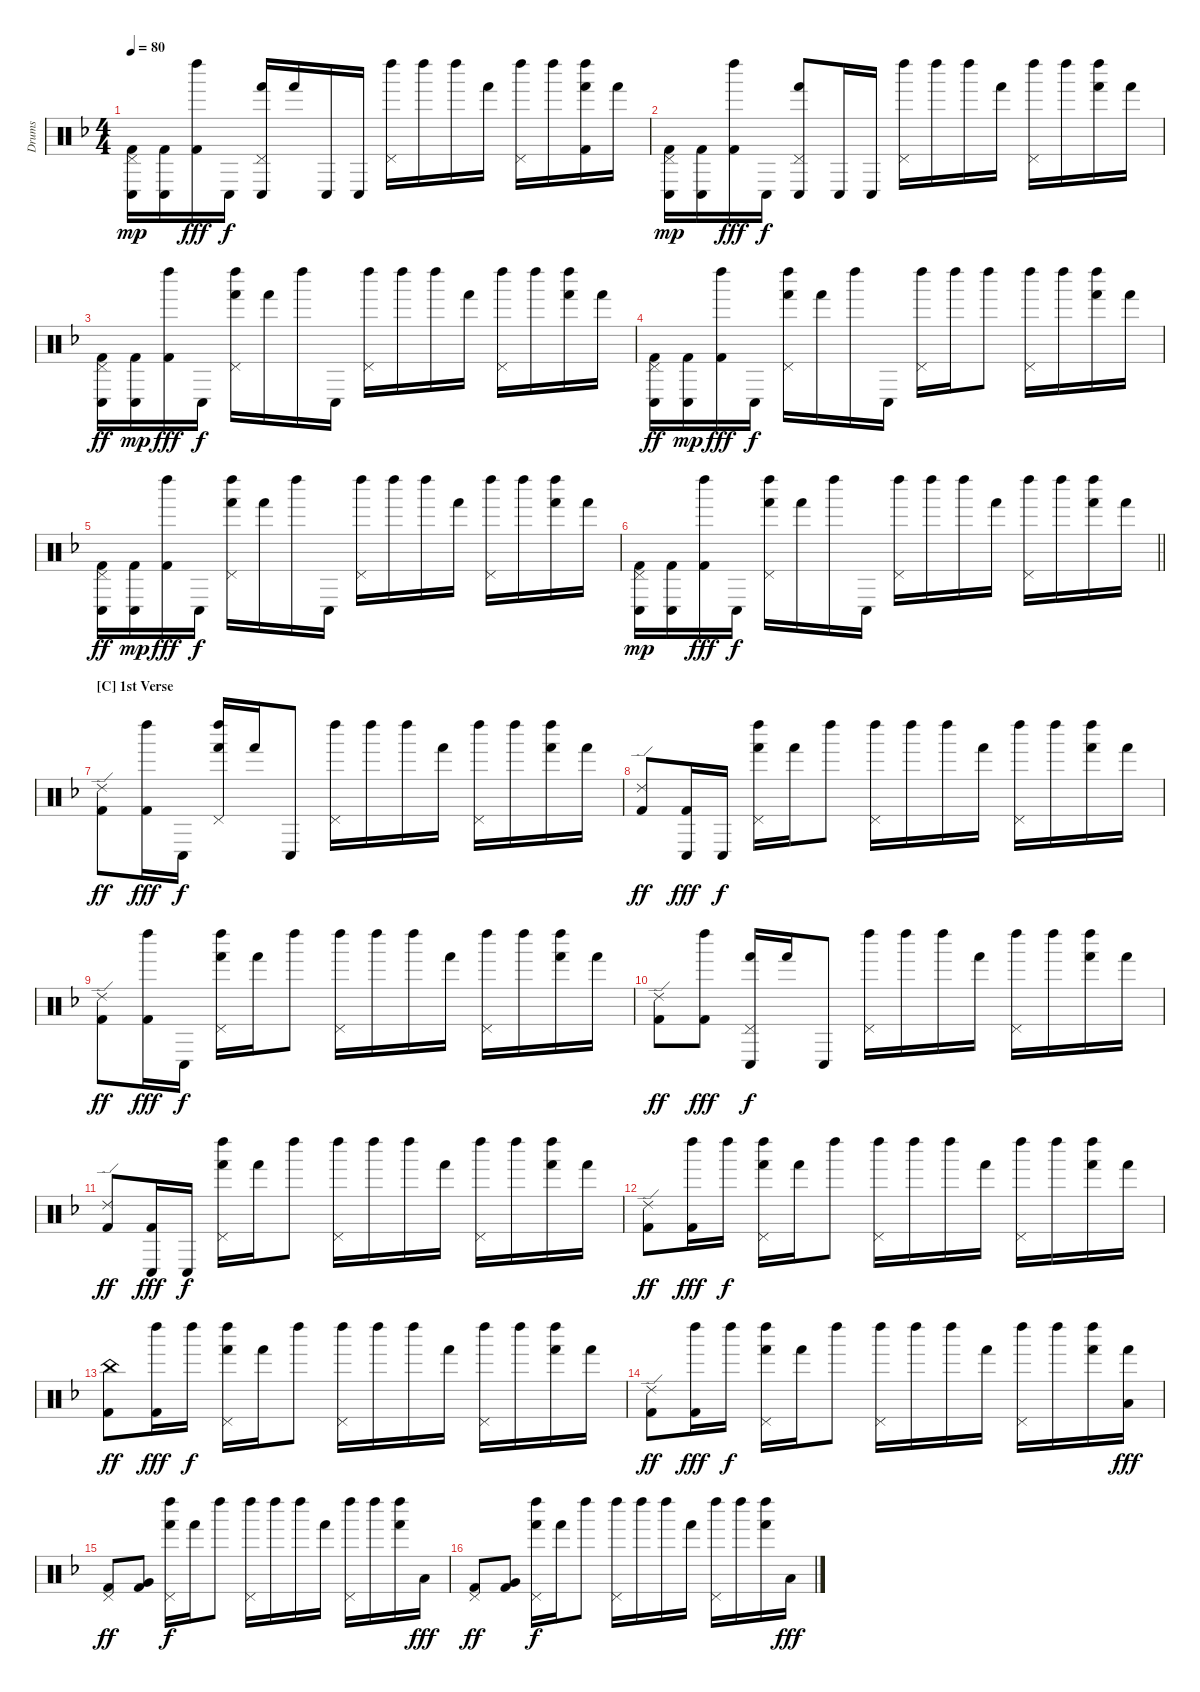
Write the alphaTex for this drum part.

\track ("Drums" "Drums") {instrument percussion}
\staff {score}
\articulation defaults
\ts (4 4)
\tempo 80
\clef neutral
\ks dminor
("Pedal Hi-Hat (hit)" "Conga low (hit)" "Kick (hit) 2").16{dy mp} ("Conga low (hit)" "Kick (hit) 2").16 ("Left Maraca (hit)" "Kick (hit) 2").16{dy fff} "Conga low (hit)".16{dy f} ("Pedal Hi-Hat (hit)" "Conga low (hit)" "Hand (hit)").16 "Hand (hit)".16 "Conga low (hit)".16 "Conga low (hit)".16 ("Pedal Hi-Hat (hit)" "Left Maraca (hit)").16 "Left Maraca (hit)".16 "Left Maraca (hit)".16 "Hand (hit)".16 ("Pedal Hi-Hat (hit)" "Left Maraca (hit)").16 "Left Maraca (hit)".16 ("Left Maraca (hit)" "Hand (hit)" "Kick (hit) 2").16 "Hand (hit)".16 |
("Pedal Hi-Hat (hit)" "Conga low (hit)" "Kick (hit) 2").16{dy mp} ("Conga low (hit)" "Kick (hit) 2").16 ("Left Maraca (hit)" "Kick (hit) 2").16{dy fff} "Conga low (hit)".16{dy f} ("Pedal Hi-Hat (hit)" "Conga low (hit)" "Hand (hit)").8 "Conga low (hit)".16 "Conga low (hit)".16 ("Pedal Hi-Hat (hit)" "Left Maraca (hit)").16 "Left Maraca (hit)".16 "Left Maraca (hit)".16 "Hand (hit)".16 ("Pedal Hi-Hat (hit)" "Left Maraca (hit)").16 "Left Maraca (hit)".16 ("Left Maraca (hit)" "Hand (hit)").16 "Hand (hit)".16 |
("Pedal Hi-Hat (hit)" "Conga low (hit)" "Kick (hit) 2").16{dy ff} ("Conga low (hit)" "Kick (hit) 2").16{dy mp} ("Left Maraca (hit)" "Kick (hit) 2").16{dy fff} "Conga low (hit)".16{dy f} ("Pedal Hi-Hat (hit)" "Left Maraca (hit)" "Hand (hit)").16 "Hand (hit)".16 "Left Maraca (hit)".16 "Conga low (hit)".16 ("Pedal Hi-Hat (hit)" "Left Maraca (hit)").16 "Left Maraca (hit)".16 "Left Maraca (hit)".16 "Hand (hit)".16 ("Pedal Hi-Hat (hit)" "Left Maraca (hit)").16 "Left Maraca (hit)".16 ("Left Maraca (hit)" "Hand (hit)").16 "Hand (hit)".16 |
("Pedal Hi-Hat (hit)" "Conga low (hit)" "Kick (hit) 2").16{dy ff} ("Conga low (hit)" "Kick (hit) 2").16{dy mp} ("Left Maraca (hit)" "Kick (hit) 2").16{dy fff} "Conga low (hit)".16{dy f} ("Pedal Hi-Hat (hit)" "Left Maraca (hit)" "Hand (hit)").16 "Hand (hit)".16 "Left Maraca (hit)".16 "Conga low (hit)".16 ("Pedal Hi-Hat (hit)" "Left Maraca (hit)").16 "Left Maraca (hit)".16 "Left Maraca (hit)".8 ("Pedal Hi-Hat (hit)" "Left Maraca (hit)").16 "Left Maraca (hit)".16 ("Left Maraca (hit)" "Hand (hit)").16 "Hand (hit)".16 |
("Pedal Hi-Hat (hit)" "Conga low (hit)" "Kick (hit) 2").16{dy ff} ("Conga low (hit)" "Kick (hit) 2").16{dy mp} ("Left Maraca (hit)" "Kick (hit) 2").16{dy fff} "Conga low (hit)".16{dy f} ("Pedal Hi-Hat (hit)" "Left Maraca (hit)" "Hand (hit)").16 "Hand (hit)".16 "Left Maraca (hit)".16 "Conga low (hit)".16 ("Pedal Hi-Hat (hit)" "Left Maraca (hit)").16 "Left Maraca (hit)".16 "Left Maraca (hit)".16 "Hand (hit)".16 ("Pedal Hi-Hat (hit)" "Left Maraca (hit)").16 "Left Maraca (hit)".16 ("Left Maraca (hit)" "Hand (hit)").16 "Hand (hit)".16 |
\barLineRight lightlight
("Pedal Hi-Hat (hit)" "Conga low (hit)" "Kick (hit) 2").16{dy mp} ("Conga low (hit)" "Kick (hit) 2").16 ("Left Maraca (hit)" "Kick (hit) 2").16{dy fff} "Conga low (hit)".16{dy f} ("Pedal Hi-Hat (hit)" "Left Maraca (hit)" "Hand (hit)").16 "Hand (hit)".16 "Left Maraca (hit)".16 "Conga low (hit)".16 ("Pedal Hi-Hat (hit)" "Left Maraca (hit)").16 "Left Maraca (hit)".16 "Left Maraca (hit)".16 "Hand (hit)".16 ("Pedal Hi-Hat (hit)" "Left Maraca (hit)").16 "Left Maraca (hit)".16 ("Left Maraca (hit)" "Hand (hit)").16 "Hand (hit)".16 |
\section ("" "[C] 1st Verse")
("Ride (edge) 2" "Kick (hit) 2").8{dy ff} ("Left Maraca (hit)" "Kick (hit) 2").16{dy fff} "Conga low (hit)".16{dy f} ("Pedal Hi-Hat (hit)" "Left Maraca (hit)" "Hand (hit)").16 "Hand (hit)".16 "Conga low (hit)".8 ("Pedal Hi-Hat (hit)" "Left Maraca (hit)").16 "Left Maraca (hit)".16 "Left Maraca (hit)".16 "Hand (hit)".16 ("Pedal Hi-Hat (hit)" "Left Maraca (hit)").16 "Left Maraca (hit)".16 ("Left Maraca (hit)" "Hand (hit)").16 "Hand (hit)".16 |
("Ride (edge) 2" "Kick (hit) 2").8{dy ff} ("Conga low (hit)" "Kick (hit) 2").16{dy fff} "Conga low (hit)".16{dy f} ("Pedal Hi-Hat (hit)" "Left Maraca (hit)" "Hand (hit)").16 "Hand (hit)".16 "Left Maraca (hit)".8 ("Pedal Hi-Hat (hit)" "Left Maraca (hit)").16 "Left Maraca (hit)".16 "Left Maraca (hit)".16 "Hand (hit)".16 ("Pedal Hi-Hat (hit)" "Left Maraca (hit)").16 "Left Maraca (hit)".16 ("Left Maraca (hit)" "Hand (hit)").16 "Hand (hit)".16 |
("Ride (edge) 2" "Kick (hit) 2").8{dy ff} ("Left Maraca (hit)" "Kick (hit) 2").16{dy fff} "Conga low (hit)".16{dy f} ("Pedal Hi-Hat (hit)" "Left Maraca (hit)" "Hand (hit)").16 "Hand (hit)".16 "Left Maraca (hit)".8 ("Pedal Hi-Hat (hit)" "Left Maraca (hit)").16 "Left Maraca (hit)".16 "Left Maraca (hit)".16 "Hand (hit)".16 ("Pedal Hi-Hat (hit)" "Left Maraca (hit)").16 "Left Maraca (hit)".16 ("Left Maraca (hit)" "Hand (hit)").16 "Hand (hit)".16 |
("Ride (edge) 2" "Kick (hit) 2").8{dy ff} ("Left Maraca (hit)" "Kick (hit) 2").8{dy fff} ("Pedal Hi-Hat (hit)" "Conga low (hit)" "Hand (hit)").16{dy f} "Hand (hit)".16 "Conga low (hit)".8 ("Pedal Hi-Hat (hit)" "Left Maraca (hit)").16 "Left Maraca (hit)".16 "Left Maraca (hit)".16 "Hand (hit)".16 ("Pedal Hi-Hat (hit)" "Left Maraca (hit)").16 "Left Maraca (hit)".16 ("Left Maraca (hit)" "Hand (hit)").16 "Hand (hit)".16 |
("Ride (edge) 2" "Kick (hit) 2").8{dy ff} ("Conga low (hit)" "Kick (hit) 2").16{dy fff} "Conga low (hit)".16{dy f} ("Pedal Hi-Hat (hit)" "Left Maraca (hit)" "Hand (hit)").16 "Hand (hit)".16 "Left Maraca (hit)".8 ("Pedal Hi-Hat (hit)" "Left Maraca (hit)").16 "Left Maraca (hit)".16 "Left Maraca (hit)".16 "Hand (hit)".16 ("Pedal Hi-Hat (hit)" "Left Maraca (hit)").16 "Left Maraca (hit)".16 ("Left Maraca (hit)" "Hand (hit)").16 "Hand (hit)".16 |
("Ride (edge) 2" "Kick (hit) 2").8{dy ff} ("Left Maraca (hit)" "Kick (hit) 2").16{dy fff} "Left Maraca (hit)".16{dy f} ("Pedal Hi-Hat (hit)" "Left Maraca (hit)" "Hand (hit)").16 "Hand (hit)".16 "Left Maraca (hit)".8 ("Pedal Hi-Hat (hit)" "Left Maraca (hit)").16 "Left Maraca (hit)".16 "Left Maraca (hit)".16 "Hand (hit)".16 ("Pedal Hi-Hat (hit)" "Left Maraca (hit)").16 "Left Maraca (hit)".16 ("Left Maraca (hit)" "Hand (hit)").16 "Hand (hit)".16 |
("China (hit)" "Kick (hit) 2").8{dy ff} ("Left Maraca (hit)" "Kick (hit) 2").16{dy fff} "Left Maraca (hit)".16{dy f} ("Pedal Hi-Hat (hit)" "Left Maraca (hit)" "Hand (hit)").16 "Hand (hit)".16 "Left Maraca (hit)".8 ("Pedal Hi-Hat (hit)" "Left Maraca (hit)").16 "Left Maraca (hit)".16 "Left Maraca (hit)".16 "Hand (hit)".16 ("Pedal Hi-Hat (hit)" "Left Maraca (hit)").16 "Left Maraca (hit)".16 ("Left Maraca (hit)" "Hand (hit)").16 "Hand (hit)".16 |
("Ride (edge) 2" "Kick (hit) 2").8{dy ff} ("Left Maraca (hit)" "Kick (hit) 2").16{dy fff} "Left Maraca (hit)".16{dy f} ("Pedal Hi-Hat (hit)" "Left Maraca (hit)" "Hand (hit)").16 "Hand (hit)".16 "Left Maraca (hit)".8 ("Pedal Hi-Hat (hit)" "Left Maraca (hit)").16 "Left Maraca (hit)".16 "Left Maraca (hit)".16 "Hand (hit)".16 ("Pedal Hi-Hat (hit)" "Left Maraca (hit)").16 "Left Maraca (hit)".16 ("Left Maraca (hit)" "Hand (hit)").16 ("Low Floor Tom (hit)" "Hand (hit)").16{dy fff} |
("Pedal Hi-Hat (hit)" "Kick (hit) 2").8{dy ff} ("Very Low Tom (hit)" "Kick (hit) 2").8 ("Pedal Hi-Hat (hit)" "Left Maraca (hit)" "Hand (hit)").16{dy f} "Hand (hit)".16 "Left Maraca (hit)".8 ("Pedal Hi-Hat (hit)" "Left Maraca (hit)").16 "Left Maraca (hit)".16 "Left Maraca (hit)".16 "Hand (hit)".16 ("Pedal Hi-Hat (hit)" "Left Maraca (hit)").16 "Left Maraca (hit)".16 ("Left Maraca (hit)" "Hand (hit)").16 "Low Floor Tom (hit)".16{dy fff} |
("Pedal Hi-Hat (hit)" "Kick (hit) 2").8{dy ff} ("Very Low Tom (hit)" "Kick (hit) 2").8 ("Pedal Hi-Hat (hit)" "Left Maraca (hit)" "Hand (hit)").16{dy f} "Hand (hit)".16 "Left Maraca (hit)".8 ("Pedal Hi-Hat (hit)" "Left Maraca (hit)").16 "Left Maraca (hit)".16 "Left Maraca (hit)".16 "Hand (hit)".16 ("Pedal Hi-Hat (hit)" "Left Maraca (hit)").16 "Left Maraca (hit)".16 ("Left Maraca (hit)" "Hand (hit)").16 "Low Floor Tom (hit)".16{dy fff}
